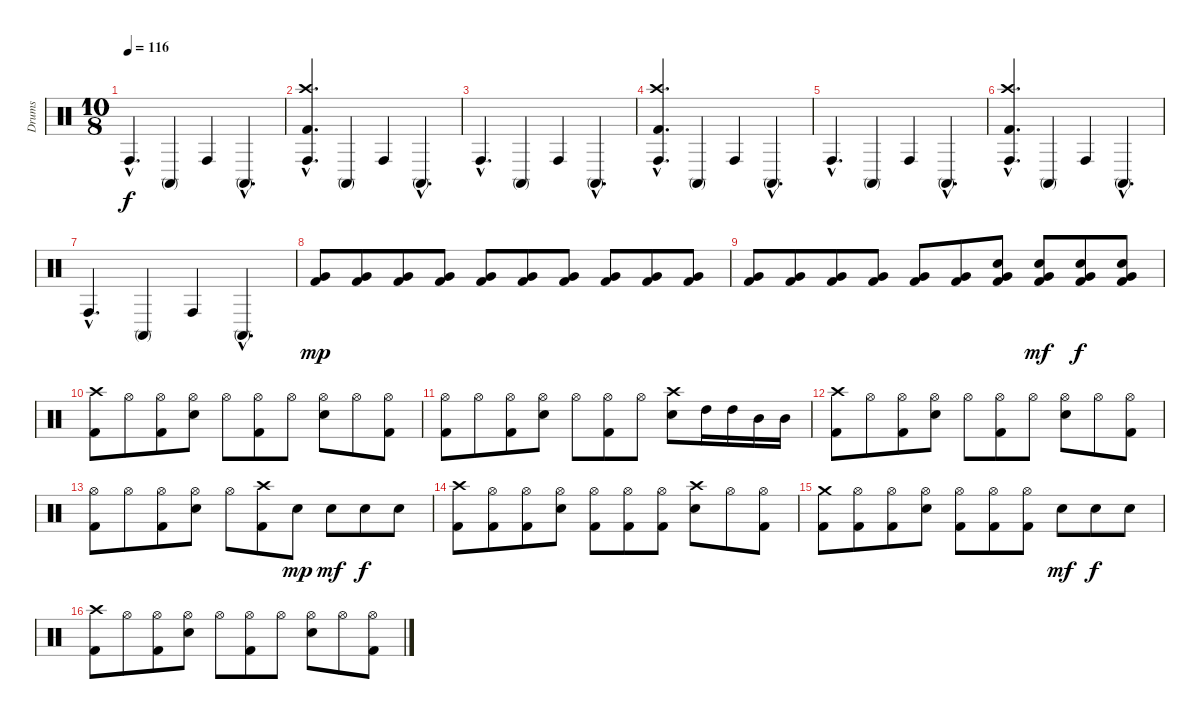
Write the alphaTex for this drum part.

\track ("Drums" "Drums") {instrument percussion}
\staff {score}
\articulation defaults
\ts (10 8)
\tempo 116
\clef neutral
\ks c "Conga high (hit)"{hac}.4{d dy f} "Conga high (mute)".4 "Conga high (hit)".4 "Conga high (mute)"{hac}.4{d}
|
("Crash high (hit)"{hac} "Conga high (hit)"{hac} "Kick (hit) 2"{hac}).4{d} "Conga high (mute)".4 "Conga high (hit)".4 "Conga high (mute)"{hac}.4{d} |
"Conga high (hit)"{hac}.4{d} "Conga high (mute)".4 "Conga high (hit)".4 "Conga high (mute)"{hac}.4{d} |
("Crash high (hit)"{hac} "Conga high (hit)"{hac} "Kick (hit) 2"{hac}).4{d} "Conga high (mute)".4 "Conga high (hit)".4 "Conga high (mute)"{hac}.4{d} |
"Conga high (hit)"{hac}.4{d} "Conga high (mute)".4 "Conga high (hit)".4 "Conga high (mute)"{hac}.4{d} |
("Crash high (hit)"{hac} "Conga high (hit)"{hac} "Kick (hit) 2"{hac}).4{d} "Conga high (mute)".4 "Conga high (hit)".4 "Conga high (mute)"{hac}.4{d} |
"Conga high (hit)"{hac}.4{d} "Conga high (mute)".4 "Conga high (hit)".4 "Conga high (mute)"{hac}.4{d} |
("Kick (hit) 2" "Very Low Tom (hit)").8{dy mp} ("Kick (hit) 2" "Very Low Tom (hit)").8 ("Kick (hit) 2" "Very Low Tom (hit)").8 ("Kick (hit) 2" "Very Low Tom (hit)").8 ("Kick (hit) 2" "Very Low Tom (hit)").8 ("Kick (hit) 2" "Very Low Tom (hit)").8 ("Kick (hit) 2" "Very Low Tom (hit)").8 ("Kick (hit) 2" "Very Low Tom (hit)").8 ("Kick (hit) 2" "Very Low Tom (hit)").8 ("Kick (hit) 2" "Very Low Tom (hit)").8 |
("Kick (hit) 2" "Very Low Tom (hit)").8 ("Kick (hit) 2" "Very Low Tom (hit)").8 ("Kick (hit) 2" "Very Low Tom (hit)").8 ("Kick (hit) 2" "Very Low Tom (hit)").8 ("Kick (hit) 2" "Very Low Tom (hit)").8 ("Kick (hit) 2" "Very Low Tom (hit)").8 ("Snare (hit) 2" "Kick (hit) 2" "Very Low Tom (hit)").8 ("Snare (hit) 2" "Kick (hit) 2" "Very Low Tom (hit)").8{dy mf} ("Snare (hit) 2" "Kick (hit) 2" "Very Low Tom (hit)").8{dy f} ("Snare (hit) 2" "Kick (hit) 2" "Very Low Tom (hit)").8 |
("Crash high (hit)" "Kick (hit) 2").8 "Hi-Hat (open)".8 ("Hi-Hat (open)" "Kick (hit) 2").8 ("Hi-Hat (open)" "Snare (hit) 2").8 "Hi-Hat (open)".8 ("Hi-Hat (open)" "Kick (hit) 2").8 "Hi-Hat (open)".8 ("Hi-Hat (open)" "Snare (hit) 2").8 "Hi-Hat (open)".8 ("Hi-Hat (open)" "Kick (hit) 2").8 |
("Hi-Hat (open)" "Kick (hit) 2").8 "Hi-Hat (open)".8 ("Hi-Hat (open)" "Kick (hit) 2").8 ("Hi-Hat (open)" "Snare (hit) 2").8 "Hi-Hat (open)".8 ("Hi-Hat (open)" "Kick (hit) 2").8 "Hi-Hat (open)".8 ("Crash high (hit)" "Snare (hit) 2").8 "High Tom (hit)".16 "High Tom (hit)".16 "Mid Tom (hit)".16 "Mid Tom (hit)".16 |
("Crash high (hit)" "Kick (hit) 2").8 "Hi-Hat (open)".8 ("Hi-Hat (open)" "Kick (hit) 2").8 ("Hi-Hat (open)" "Snare (hit) 2").8 "Hi-Hat (open)".8 ("Hi-Hat (open)" "Kick (hit) 2").8 "Hi-Hat (open)".8 ("Hi-Hat (open)" "Snare (hit) 2").8 "Hi-Hat (open)".8 ("Hi-Hat (open)" "Kick (hit) 2").8 |
("Hi-Hat (open)" "Kick (hit) 2").8 "Hi-Hat (open)".8 ("Hi-Hat (open)" "Kick (hit) 2").8 ("Hi-Hat (open)" "Snare (hit) 2").8 "Hi-Hat (open)".8 ("Crash high (hit)" "Kick (hit) 2").8 "Snare (hit) 2".8{dy mp} "Snare (hit) 2".8{dy mf} "Snare (hit) 2".8{dy f} "Snare (hit) 2".8 |
("Crash high (hit)" "Kick (hit) 2").8 ("Hi-Hat (open)" "Kick (hit) 2").8 ("Hi-Hat (open)" "Kick (hit) 2").8 ("Hi-Hat (open)" "Snare (hit) 2").8 ("Hi-Hat (open)" "Kick (hit) 2").8 ("Hi-Hat (open)" "Kick (hit) 2").8 ("Hi-Hat (open)" "Kick (hit) 2").8 ("Crash high (hit)" "Snare (hit) 2").8 "Hi-Hat (open)".8 ("Hi-Hat (open)" "Kick (hit) 2").8 |
("Crash medium (hit)" "Kick (hit) 2").8 ("Hi-Hat (open)" "Kick (hit) 2").8 ("Hi-Hat (open)" "Kick (hit) 2").8 ("Hi-Hat (open)" "Snare (hit) 2").8 ("Hi-Hat (open)" "Kick (hit) 2").8 ("Hi-Hat (open)" "Kick (hit) 2").8 ("Hi-Hat (open)" "Kick (hit) 2").8 "Snare (hit) 2".8{dy mf} "Snare (hit) 2".8{dy f} "Snare (hit) 2".8 |
("Crash high (hit)" "Kick (hit) 2").8 "Hi-Hat (open)".8 ("Hi-Hat (open)" "Kick (hit) 2").8 ("Hi-Hat (open)" "Snare (hit) 2").8 "Hi-Hat (open)".8 ("Hi-Hat (open)" "Kick (hit) 2").8 "Hi-Hat (open)".8 ("Hi-Hat (open)" "Snare (hit) 2").8 "Hi-Hat (open)".8 ("Hi-Hat (open)" "Kick (hit) 2").8
